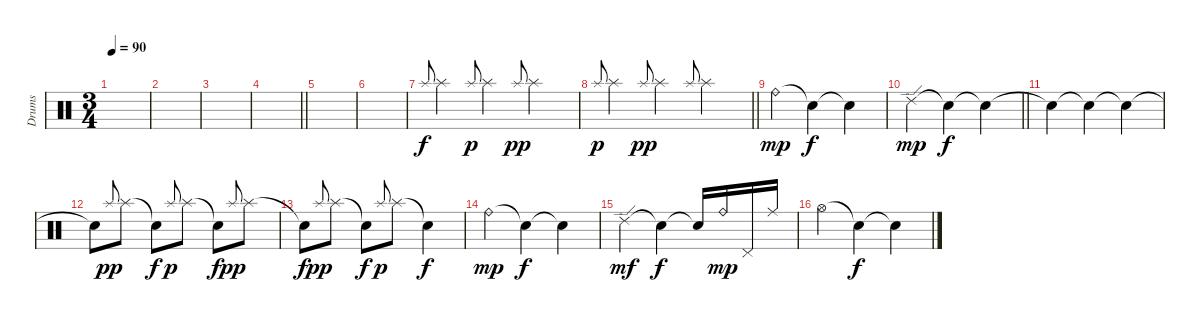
\track ("Drums" "Drums") {instrument percussion}
\staff {score}
\articulation defaults
\ts (3 4)
\tempo 90
\clef neutral
\ks c
|
|
|
\barLineRight lightlight
|
\section ("" "")
|
|
"Splash (hit)".8{gr onbeat} "Splash (hit)".4 "Splash (hit)".8{gr onbeat dy p} "Splash (hit)".4 "Splash (hit)".8{gr onbeat dy pp} "Splash (hit)".4 |
\barLineRight lightlight "Splash (hit)".8{gr onbeat dy p} "Splash (hit)".4 "Splash (hit)".8{gr onbeat dy pp} "Splash (hit)".4 "Splash (hit)".8{gr onbeat} "Splash (hit)".4
|
"Ride (bell)".4{dy mp} "Snare (hit)"{t}.4{dy f} "Snare (hit)"{t}.4 |
\barLineRight lightlight "Ride (edge) 2".4{dy mp} "Snare (hit)"{t}.4{dy f} "Snare (hit)"{t}.4
|
"Snare (hit)"{t}.4 "Snare (hit)"{t}.4 "Snare (hit)"{t}.4 |
"Snare (hit)"{t}.8 "Splash (hit)".8{gr onbeat dy pp} "Splash (hit)".8 "Snare (hit)"{t}.8{dy f} "Splash (hit)".8{gr onbeat dy p} "Splash (hit)".8 "Snare (hit)"{t}.8{dy f} "Splash (hit)".8{gr onbeat dy pp} "Splash (hit)".8 |
"Snare (hit)"{t}.8{dy f} "Splash (hit)".8{gr onbeat dy pp} "Splash (hit)".8 "Snare (hit)"{t}.8{dy f} "Splash (hit)".8{gr onbeat dy p} "Splash (hit)".8 "Snare (hit)"{t}.4{dy f} |
"Ride (bell)".4{dy mp} "Snare (hit)"{t}.4{dy f} "Snare (hit)"{t}.4 |
"Ride (edge) 2".4{dy mf} "Snare (hit)"{t}.4{dy f} "Snare (hit)"{t}.16 "Ride (bell)".16{dy mp} "Pedal Hi-Hat (hit)".16 "Ride (middle)".16 |
"Hi-Hat (open)".4 "Snare (hit)"{t}.4{dy f} "Snare (hit)"{t}.4
